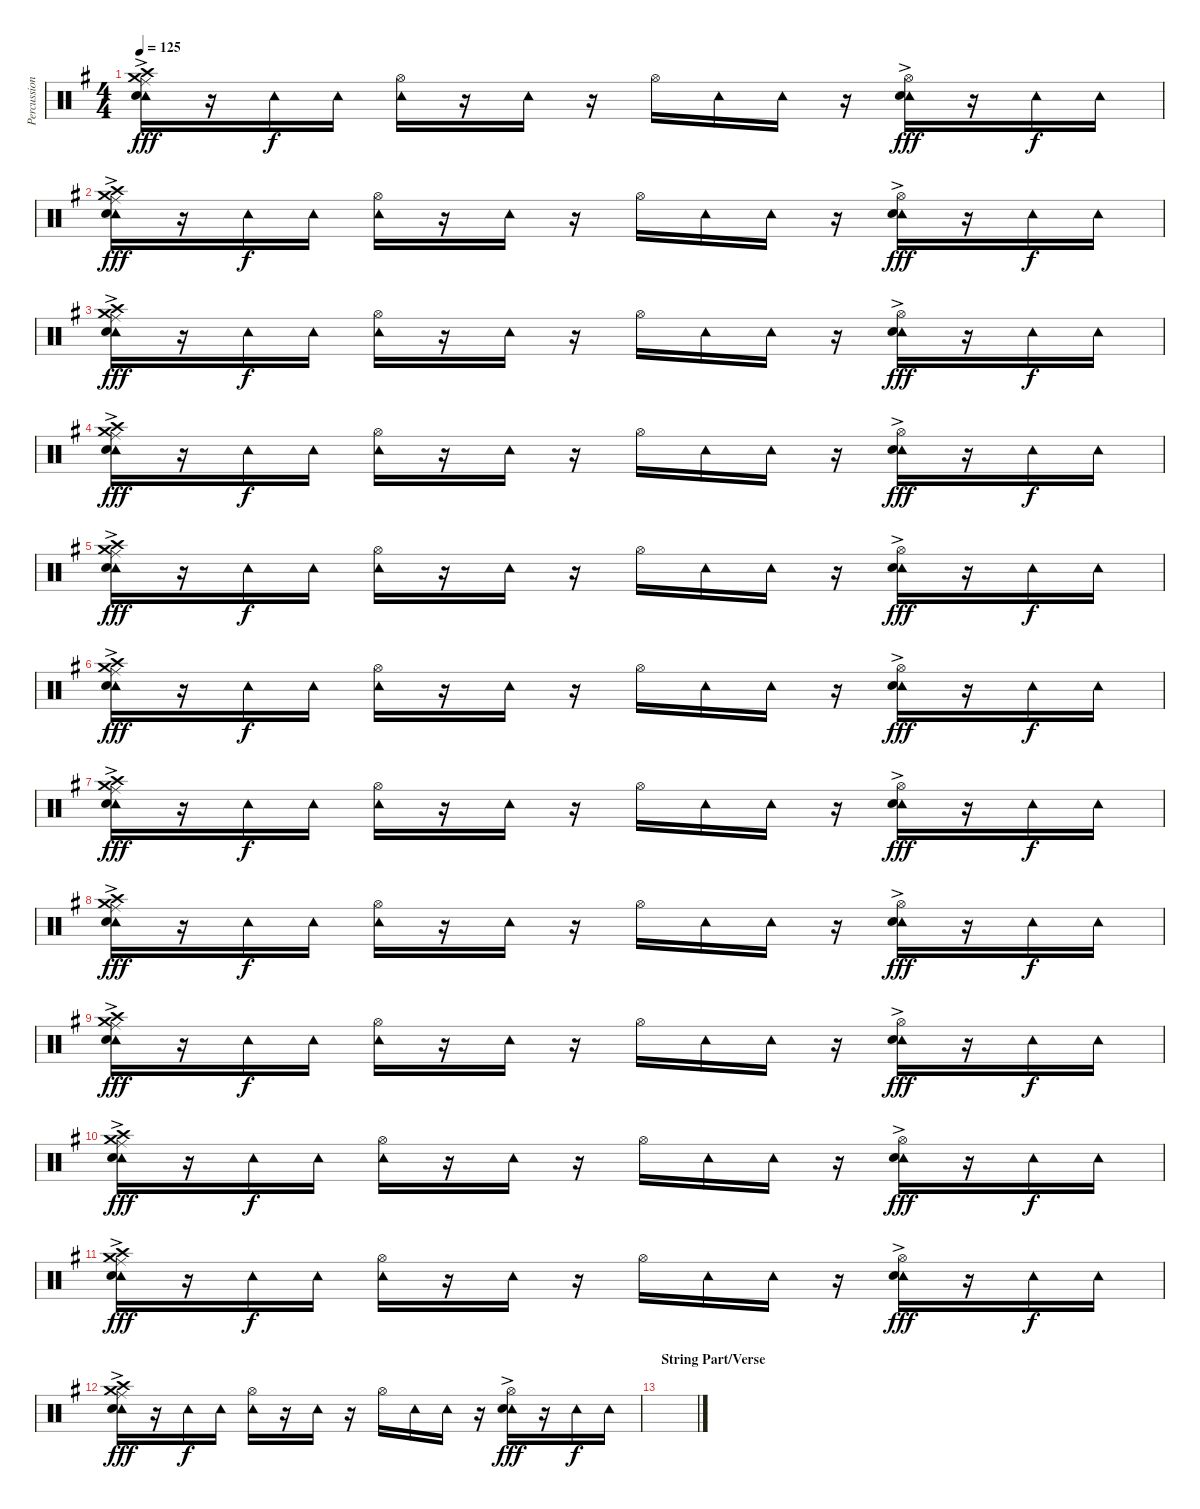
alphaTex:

\track ("Percussion" "Percussion") {instrument percussion}
\staff {score}
\articulation defaults
\ts (4 4)
\tempo 125
\clef neutral
\ks g
("Ride (middle)"{ac} "Crash medium (hit)" "Tambourine (hit)" "Snare (hit) 2" "Crash high (hit)").16{dy fff} r.16 "Tambourine (hit)".16{dy f} "Tambourine (hit)".16 ("Hi-Hat (open)" "Tambourine (hit)").16 r.16 "Tambourine (hit)".16 r.16 "Hi-Hat (open)".16 "Tambourine (hit)".16 "Tambourine (hit)".16 r.16 ("Hi-Hat (open)"{ac} "Tambourine (hit)" "Snare (hit) 2").16{dy fff} r.16 "Tambourine (hit)".16{dy f} "Tambourine (hit)".16 |
("Ride (middle)"{ac} "Crash medium (hit)" "Tambourine (hit)" "Snare (hit) 2" "Crash high (hit)").16{dy fff} r.16 "Tambourine (hit)".16{dy f} "Tambourine (hit)".16 ("Hi-Hat (open)" "Tambourine (hit)").16 r.16 "Tambourine (hit)".16 r.16 "Hi-Hat (open)".16 "Tambourine (hit)".16 "Tambourine (hit)".16 r.16 ("Hi-Hat (open)"{ac} "Tambourine (hit)" "Snare (hit) 2").16{dy fff} r.16 "Tambourine (hit)".16{dy f} "Tambourine (hit)".16 |
("Ride (middle)"{ac} "Crash medium (hit)" "Tambourine (hit)" "Snare (hit) 2" "Crash high (hit)").16{dy fff} r.16 "Tambourine (hit)".16{dy f} "Tambourine (hit)".16 ("Hi-Hat (open)" "Tambourine (hit)").16 r.16 "Tambourine (hit)".16 r.16 "Hi-Hat (open)".16 "Tambourine (hit)".16 "Tambourine (hit)".16 r.16 ("Hi-Hat (open)"{ac} "Tambourine (hit)" "Snare (hit) 2").16{dy fff} r.16 "Tambourine (hit)".16{dy f} "Tambourine (hit)".16 |
("Ride (middle)"{ac} "Crash medium (hit)" "Tambourine (hit)" "Snare (hit) 2" "Crash high (hit)").16{dy fff} r.16 "Tambourine (hit)".16{dy f} "Tambourine (hit)".16 ("Hi-Hat (open)" "Tambourine (hit)").16 r.16 "Tambourine (hit)".16 r.16 "Hi-Hat (open)".16 "Tambourine (hit)".16 "Tambourine (hit)".16 r.16 ("Hi-Hat (open)"{ac} "Tambourine (hit)" "Snare (hit) 2").16{dy fff} r.16 "Tambourine (hit)".16{dy f} "Tambourine (hit)".16 |
("Ride (middle)"{ac} "Crash medium (hit)" "Tambourine (hit)" "Snare (hit) 2" "Crash high (hit)").16{dy fff} r.16 "Tambourine (hit)".16{dy f} "Tambourine (hit)".16 ("Hi-Hat (open)" "Tambourine (hit)").16 r.16 "Tambourine (hit)".16 r.16 "Hi-Hat (open)".16 "Tambourine (hit)".16 "Tambourine (hit)".16 r.16 ("Hi-Hat (open)"{ac} "Tambourine (hit)" "Snare (hit) 2").16{dy fff} r.16 "Tambourine (hit)".16{dy f} "Tambourine (hit)".16 |
("Ride (middle)"{ac} "Crash medium (hit)" "Tambourine (hit)" "Snare (hit) 2" "Crash high (hit)").16{dy fff} r.16 "Tambourine (hit)".16{dy f} "Tambourine (hit)".16 ("Hi-Hat (open)" "Tambourine (hit)").16 r.16 "Tambourine (hit)".16 r.16 "Hi-Hat (open)".16 "Tambourine (hit)".16 "Tambourine (hit)".16 r.16 ("Hi-Hat (open)"{ac} "Tambourine (hit)" "Snare (hit) 2").16{dy fff} r.16 "Tambourine (hit)".16{dy f} "Tambourine (hit)".16 |
("Ride (middle)"{ac} "Crash medium (hit)" "Tambourine (hit)" "Snare (hit) 2" "Crash high (hit)").16{dy fff} r.16 "Tambourine (hit)".16{dy f} "Tambourine (hit)".16 ("Hi-Hat (open)" "Tambourine (hit)").16 r.16 "Tambourine (hit)".16 r.16 "Hi-Hat (open)".16 "Tambourine (hit)".16 "Tambourine (hit)".16 r.16 ("Hi-Hat (open)"{ac} "Tambourine (hit)" "Snare (hit) 2").16{dy fff} r.16 "Tambourine (hit)".16{dy f} "Tambourine (hit)".16 |
("Ride (middle)"{ac} "Crash medium (hit)" "Tambourine (hit)" "Snare (hit) 2" "Crash high (hit)").16{dy fff} r.16 "Tambourine (hit)".16{dy f} "Tambourine (hit)".16 ("Hi-Hat (open)" "Tambourine (hit)").16 r.16 "Tambourine (hit)".16 r.16 "Hi-Hat (open)".16 "Tambourine (hit)".16 "Tambourine (hit)".16 r.16 ("Hi-Hat (open)"{ac} "Tambourine (hit)" "Snare (hit) 2").16{dy fff} r.16 "Tambourine (hit)".16{dy f} "Tambourine (hit)".16 |
("Ride (middle)"{ac} "Crash medium (hit)" "Tambourine (hit)" "Snare (hit) 2" "Crash high (hit)").16{dy fff} r.16 "Tambourine (hit)".16{dy f} "Tambourine (hit)".16 ("Hi-Hat (open)" "Tambourine (hit)").16 r.16 "Tambourine (hit)".16 r.16 "Hi-Hat (open)".16 "Tambourine (hit)".16 "Tambourine (hit)".16 r.16 ("Hi-Hat (open)"{ac} "Tambourine (hit)" "Snare (hit) 2").16{dy fff} r.16 "Tambourine (hit)".16{dy f} "Tambourine (hit)".16 |
("Ride (middle)"{ac} "Crash medium (hit)" "Tambourine (hit)" "Snare (hit) 2" "Crash high (hit)").16{dy fff} r.16 "Tambourine (hit)".16{dy f} "Tambourine (hit)".16 ("Hi-Hat (open)" "Tambourine (hit)").16 r.16 "Tambourine (hit)".16 r.16 "Hi-Hat (open)".16 "Tambourine (hit)".16 "Tambourine (hit)".16 r.16 ("Hi-Hat (open)"{ac} "Tambourine (hit)" "Snare (hit) 2").16{dy fff} r.16 "Tambourine (hit)".16{dy f} "Tambourine (hit)".16 |
("Ride (middle)"{ac} "Crash medium (hit)" "Tambourine (hit)" "Snare (hit) 2" "Crash high (hit)").16{dy fff} r.16 "Tambourine (hit)".16{dy f} "Tambourine (hit)".16 ("Hi-Hat (open)" "Tambourine (hit)").16 r.16 "Tambourine (hit)".16 r.16 "Hi-Hat (open)".16 "Tambourine (hit)".16 "Tambourine (hit)".16 r.16 ("Hi-Hat (open)"{ac} "Tambourine (hit)" "Snare (hit) 2").16{dy fff} r.16 "Tambourine (hit)".16{dy f} "Tambourine (hit)".16 |
("Ride (middle)"{ac} "Crash medium (hit)" "Tambourine (hit)" "Snare (hit) 2" "Crash high (hit)").16{dy fff} r.16 "Tambourine (hit)".16{dy f} "Tambourine (hit)".16 ("Hi-Hat (open)" "Tambourine (hit)").16 r.16 "Tambourine (hit)".16 r.16 "Hi-Hat (open)".16 "Tambourine (hit)".16 "Tambourine (hit)".16 r.16 ("Hi-Hat (open)"{ac} "Tambourine (hit)" "Snare (hit) 2").16{dy fff} r.16 "Tambourine (hit)".16{dy f} "Tambourine (hit)".16 |
\section ("" "String Part/Verse")
